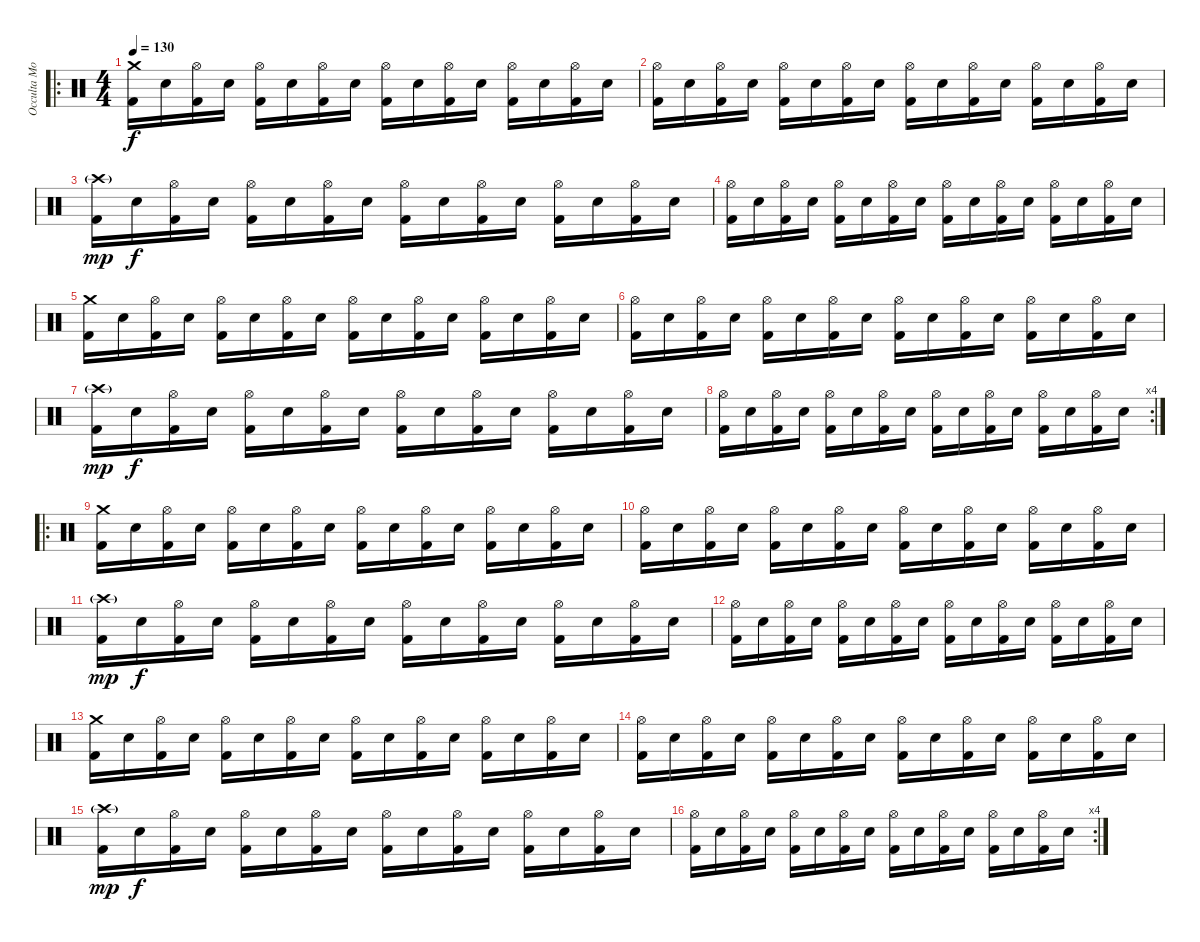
\track ("Occulta Mors" "Occulta Mo") {instrument percussion}
\staff {score}
\articulation defaults
\ro
\ts (4 4)
\tempo 130
\clef neutral
\ks c
("Crash medium (hit)" "Kick (hit) 2").16{dy f} "Snare (hit) 2".16 ("Hi-Hat (open)" "Kick (hit) 2").16 "Snare (hit) 2".16 ("Hi-Hat (open)" "Kick (hit) 2").16 "Snare (hit) 2".16 ("Hi-Hat (open)" "Kick (hit) 2").16 "Snare (hit) 2".16 ("Hi-Hat (open)" "Kick (hit) 2").16 "Snare (hit) 2".16 ("Hi-Hat (open)" "Kick (hit) 2").16 "Snare (hit) 2".16 ("Hi-Hat (open)" "Kick (hit) 2").16 "Snare (hit) 2".16 ("Hi-Hat (open)" "Kick (hit) 2").16 "Snare (hit) 2".16 |
("Hi-Hat (open)" "Kick (hit) 2").16 "Snare (hit) 2".16 ("Hi-Hat (open)" "Kick (hit) 2").16 "Snare (hit) 2".16 ("Hi-Hat (open)" "Kick (hit) 2").16 "Snare (hit) 2".16 ("Hi-Hat (open)" "Kick (hit) 2").16 "Snare (hit) 2".16 ("Hi-Hat (open)" "Kick (hit) 2").16 "Snare (hit) 2".16 ("Hi-Hat (open)" "Kick (hit) 2").16 "Snare (hit) 2".16 ("Hi-Hat (open)" "Kick (hit) 2").16 "Snare (hit) 2".16 ("Hi-Hat (open)" "Kick (hit) 2").16 "Snare (hit) 2".16 |
("Crash high (hit)"{g} "Kick (hit) 2").16{dy mp} "Snare (hit) 2".16{dy f} ("Hi-Hat (open)" "Kick (hit) 2").16 "Snare (hit) 2".16 ("Hi-Hat (open)" "Kick (hit) 2").16 "Snare (hit) 2".16 ("Hi-Hat (open)" "Kick (hit) 2").16 "Snare (hit) 2".16 ("Hi-Hat (open)" "Kick (hit) 2").16 "Snare (hit) 2".16 ("Hi-Hat (open)" "Kick (hit) 2").16 "Snare (hit) 2".16 ("Hi-Hat (open)" "Kick (hit) 2").16 "Snare (hit) 2".16 ("Hi-Hat (open)" "Kick (hit) 2").16 "Snare (hit) 2".16 |
("Hi-Hat (open)" "Kick (hit) 2").16 "Snare (hit) 2".16 ("Hi-Hat (open)" "Kick (hit) 2").16 "Snare (hit) 2".16 ("Hi-Hat (open)" "Kick (hit) 2").16 "Snare (hit) 2".16 ("Hi-Hat (open)" "Kick (hit) 2").16 "Snare (hit) 2".16 ("Hi-Hat (open)" "Kick (hit) 2").16 "Snare (hit) 2".16 ("Hi-Hat (open)" "Kick (hit) 2").16 "Snare (hit) 2".16 ("Hi-Hat (open)" "Kick (hit) 2").16 "Snare (hit) 2".16 ("Hi-Hat (open)" "Kick (hit) 2").16 "Snare (hit) 2".16 |
("Crash medium (hit)" "Kick (hit) 2").16 "Snare (hit) 2".16 ("Hi-Hat (open)" "Kick (hit) 2").16 "Snare (hit) 2".16 ("Hi-Hat (open)" "Kick (hit) 2").16 "Snare (hit) 2".16 ("Hi-Hat (open)" "Kick (hit) 2").16 "Snare (hit) 2".16 ("Hi-Hat (open)" "Kick (hit) 2").16 "Snare (hit) 2".16 ("Hi-Hat (open)" "Kick (hit) 2").16 "Snare (hit) 2".16 ("Hi-Hat (open)" "Kick (hit) 2").16 "Snare (hit) 2".16 ("Hi-Hat (open)" "Kick (hit) 2").16 "Snare (hit) 2".16 |
("Hi-Hat (open)" "Kick (hit) 2").16 "Snare (hit) 2".16 ("Hi-Hat (open)" "Kick (hit) 2").16 "Snare (hit) 2".16 ("Hi-Hat (open)" "Kick (hit) 2").16 "Snare (hit) 2".16 ("Hi-Hat (open)" "Kick (hit) 2").16 "Snare (hit) 2".16 ("Hi-Hat (open)" "Kick (hit) 2").16 "Snare (hit) 2".16 ("Hi-Hat (open)" "Kick (hit) 2").16 "Snare (hit) 2".16 ("Hi-Hat (open)" "Kick (hit) 2").16 "Snare (hit) 2".16 ("Hi-Hat (open)" "Kick (hit) 2").16 "Snare (hit) 2".16 |
("Crash high (hit)"{g} "Kick (hit) 2").16{dy mp} "Snare (hit) 2".16{dy f} ("Hi-Hat (open)" "Kick (hit) 2").16 "Snare (hit) 2".16 ("Hi-Hat (open)" "Kick (hit) 2").16 "Snare (hit) 2".16 ("Hi-Hat (open)" "Kick (hit) 2").16 "Snare (hit) 2".16 ("Hi-Hat (open)" "Kick (hit) 2").16 "Snare (hit) 2".16 ("Hi-Hat (open)" "Kick (hit) 2").16 "Snare (hit) 2".16 ("Hi-Hat (open)" "Kick (hit) 2").16 "Snare (hit) 2".16 ("Hi-Hat (open)" "Kick (hit) 2").16 "Snare (hit) 2".16 |
\rc 4
("Hi-Hat (open)" "Kick (hit) 2").16 "Snare (hit) 2".16 ("Hi-Hat (open)" "Kick (hit) 2").16 "Snare (hit) 2".16 ("Hi-Hat (open)" "Kick (hit) 2").16 "Snare (hit) 2".16 ("Hi-Hat (open)" "Kick (hit) 2").16 "Snare (hit) 2".16 ("Hi-Hat (open)" "Kick (hit) 2").16 "Snare (hit) 2".16 ("Hi-Hat (open)" "Kick (hit) 2").16 "Snare (hit) 2".16 ("Hi-Hat (open)" "Kick (hit) 2").16 "Snare (hit) 2".16 ("Hi-Hat (open)" "Kick (hit) 2").16 "Snare (hit) 2".16 |
\ro
("Crash medium (hit)" "Kick (hit) 2").16 "Snare (hit) 2".16 ("Hi-Hat (open)" "Kick (hit) 2").16 "Snare (hit) 2".16 ("Hi-Hat (open)" "Kick (hit) 2").16 "Snare (hit) 2".16 ("Hi-Hat (open)" "Kick (hit) 2").16 "Snare (hit) 2".16 ("Hi-Hat (open)" "Kick (hit) 2").16 "Snare (hit) 2".16 ("Hi-Hat (open)" "Kick (hit) 2").16 "Snare (hit) 2".16 ("Hi-Hat (open)" "Kick (hit) 2").16 "Snare (hit) 2".16 ("Hi-Hat (open)" "Kick (hit) 2").16 "Snare (hit) 2".16 |
("Hi-Hat (open)" "Kick (hit) 2").16 "Snare (hit) 2".16 ("Hi-Hat (open)" "Kick (hit) 2").16 "Snare (hit) 2".16 ("Hi-Hat (open)" "Kick (hit) 2").16 "Snare (hit) 2".16 ("Hi-Hat (open)" "Kick (hit) 2").16 "Snare (hit) 2".16 ("Hi-Hat (open)" "Kick (hit) 2").16 "Snare (hit) 2".16 ("Hi-Hat (open)" "Kick (hit) 2").16 "Snare (hit) 2".16 ("Hi-Hat (open)" "Kick (hit) 2").16 "Snare (hit) 2".16 ("Hi-Hat (open)" "Kick (hit) 2").16 "Snare (hit) 2".16 |
("Crash high (hit)"{g} "Kick (hit) 2").16{dy mp} "Snare (hit) 2".16{dy f} ("Hi-Hat (open)" "Kick (hit) 2").16 "Snare (hit) 2".16 ("Hi-Hat (open)" "Kick (hit) 2").16 "Snare (hit) 2".16 ("Hi-Hat (open)" "Kick (hit) 2").16 "Snare (hit) 2".16 ("Hi-Hat (open)" "Kick (hit) 2").16 "Snare (hit) 2".16 ("Hi-Hat (open)" "Kick (hit) 2").16 "Snare (hit) 2".16 ("Hi-Hat (open)" "Kick (hit) 2").16 "Snare (hit) 2".16 ("Hi-Hat (open)" "Kick (hit) 2").16 "Snare (hit) 2".16 |
("Hi-Hat (open)" "Kick (hit) 2").16 "Snare (hit) 2".16 ("Hi-Hat (open)" "Kick (hit) 2").16 "Snare (hit) 2".16 ("Hi-Hat (open)" "Kick (hit) 2").16 "Snare (hit) 2".16 ("Hi-Hat (open)" "Kick (hit) 2").16 "Snare (hit) 2".16 ("Hi-Hat (open)" "Kick (hit) 2").16 "Snare (hit) 2".16 ("Hi-Hat (open)" "Kick (hit) 2").16 "Snare (hit) 2".16 ("Hi-Hat (open)" "Kick (hit) 2").16 "Snare (hit) 2".16 ("Hi-Hat (open)" "Kick (hit) 2").16 "Snare (hit) 2".16 |
("Crash medium (hit)" "Kick (hit) 2").16 "Snare (hit) 2".16 ("Hi-Hat (open)" "Kick (hit) 2").16 "Snare (hit) 2".16 ("Hi-Hat (open)" "Kick (hit) 2").16 "Snare (hit) 2".16 ("Hi-Hat (open)" "Kick (hit) 2").16 "Snare (hit) 2".16 ("Hi-Hat (open)" "Kick (hit) 2").16 "Snare (hit) 2".16 ("Hi-Hat (open)" "Kick (hit) 2").16 "Snare (hit) 2".16 ("Hi-Hat (open)" "Kick (hit) 2").16 "Snare (hit) 2".16 ("Hi-Hat (open)" "Kick (hit) 2").16 "Snare (hit) 2".16 |
("Hi-Hat (open)" "Kick (hit) 2").16 "Snare (hit) 2".16 ("Hi-Hat (open)" "Kick (hit) 2").16 "Snare (hit) 2".16 ("Hi-Hat (open)" "Kick (hit) 2").16 "Snare (hit) 2".16 ("Hi-Hat (open)" "Kick (hit) 2").16 "Snare (hit) 2".16 ("Hi-Hat (open)" "Kick (hit) 2").16 "Snare (hit) 2".16 ("Hi-Hat (open)" "Kick (hit) 2").16 "Snare (hit) 2".16 ("Hi-Hat (open)" "Kick (hit) 2").16 "Snare (hit) 2".16 ("Hi-Hat (open)" "Kick (hit) 2").16 "Snare (hit) 2".16 |
("Crash high (hit)"{g} "Kick (hit) 2").16{dy mp} "Snare (hit) 2".16{dy f} ("Hi-Hat (open)" "Kick (hit) 2").16 "Snare (hit) 2".16 ("Hi-Hat (open)" "Kick (hit) 2").16 "Snare (hit) 2".16 ("Hi-Hat (open)" "Kick (hit) 2").16 "Snare (hit) 2".16 ("Hi-Hat (open)" "Kick (hit) 2").16 "Snare (hit) 2".16 ("Hi-Hat (open)" "Kick (hit) 2").16 "Snare (hit) 2".16 ("Hi-Hat (open)" "Kick (hit) 2").16 "Snare (hit) 2".16 ("Hi-Hat (open)" "Kick (hit) 2").16 "Snare (hit) 2".16 |
\rc 4
("Hi-Hat (open)" "Kick (hit) 2").16 "Snare (hit) 2".16 ("Hi-Hat (open)" "Kick (hit) 2").16 "Snare (hit) 2".16 ("Hi-Hat (open)" "Kick (hit) 2").16 "Snare (hit) 2".16 ("Hi-Hat (open)" "Kick (hit) 2").16 "Snare (hit) 2".16 ("Hi-Hat (open)" "Kick (hit) 2").16 "Snare (hit) 2".16 ("Hi-Hat (open)" "Kick (hit) 2").16 "Snare (hit) 2".16 ("Hi-Hat (open)" "Kick (hit) 2").16 "Snare (hit) 2".16 ("Hi-Hat (open)" "Kick (hit) 2").16 "Snare (hit) 2".16
